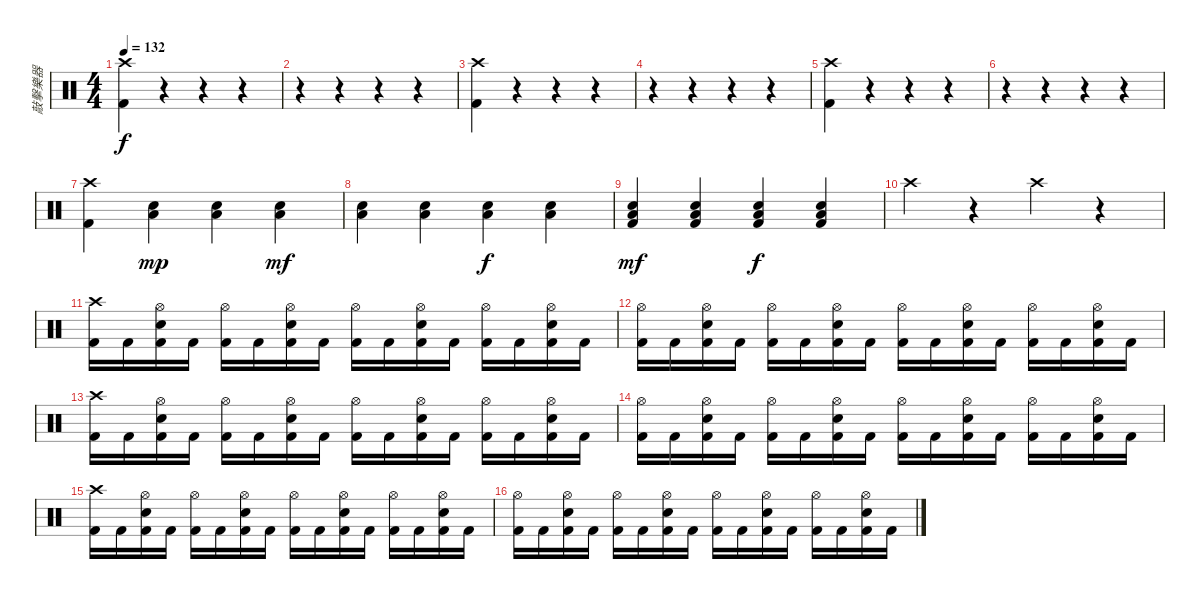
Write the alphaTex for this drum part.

\track ("敲擊樂器" "敲擊樂器") {instrument percussion}
\staff {score}
\articulation defaults
\ts (4 4)
\tempo 132
\clef neutral
\ks c
("Crash high (hit)" "Kick (hit) 2").4{dy f} r.4 r.4 r.4 |
r.4 r.4 r.4 r.4 |
("Crash high (hit)" "Kick (hit) 2").4 r.4 r.4 r.4 |
r.4 r.4 r.4 r.4 |
("Crash high (hit)" "Kick (hit) 2").4 r.4 r.4 r.4 |
r.4 r.4 r.4 r.4 |
("Crash high (hit)" "Kick (hit) 2").4 ("Low Floor Tom (hit)" "Electric Snare (hit)").4{dy mp} ("Low Floor Tom (hit)" "Electric Snare (hit)").4 ("Low Floor Tom (hit)" "Electric Snare (hit)").4{dy mf} |
("Low Floor Tom (hit)" "Electric Snare (hit)").4 ("Low Floor Tom (hit)" "Electric Snare (hit)").4 ("Low Floor Tom (hit)" "Electric Snare (hit)").4{dy f} ("Low Floor Tom (hit)" "Electric Snare (hit)").4 |
("Kick (hit) 2" "Low Floor Tom (hit)" "Electric Snare (hit)").4{dy mf} ("Kick (hit) 2" "Low Floor Tom (hit)" "Electric Snare (hit)").4 ("Kick (hit) 2" "Low Floor Tom (hit)" "Electric Snare (hit)").4{dy f} ("Kick (hit) 2" "Low Floor Tom (hit)" "Electric Snare (hit)").4 |
"Crash high (hit)".4 r.4 "Crash high (hit)".4 r.4 |
("Crash high (hit)" "Kick (hit) 2").16 "Kick (hit) 2".16 ("Hi-Hat (open)" "Electric Snare (hit)" "Kick (hit) 2").16 "Kick (hit) 2".16 ("Hi-Hat (open)" "Kick (hit) 2").16 "Kick (hit) 2".16 ("Hi-Hat (open)" "Electric Snare (hit)" "Kick (hit) 2").16 "Kick (hit) 2".16 ("Hi-Hat (open)" "Kick (hit) 2").16 "Kick (hit) 2".16 ("Hi-Hat (open)" "Electric Snare (hit)" "Kick (hit) 2").16 "Kick (hit) 2".16 ("Hi-Hat (open)" "Kick (hit) 2").16 "Kick (hit) 2".16 ("Hi-Hat (open)" "Electric Snare (hit)" "Kick (hit) 2").16 "Kick (hit) 2".16 |
("Hi-Hat (open)" "Kick (hit) 2").16 "Kick (hit) 2".16 ("Hi-Hat (open)" "Electric Snare (hit)" "Kick (hit) 2").16 "Kick (hit) 2".16 ("Hi-Hat (open)" "Kick (hit) 2").16 "Kick (hit) 2".16 ("Hi-Hat (open)" "Electric Snare (hit)" "Kick (hit) 2").16 "Kick (hit) 2".16 ("Hi-Hat (open)" "Kick (hit) 2").16 "Kick (hit) 2".16 ("Hi-Hat (open)" "Electric Snare (hit)" "Kick (hit) 2").16 "Kick (hit) 2".16 ("Hi-Hat (open)" "Kick (hit) 2").16 "Kick (hit) 2".16 ("Hi-Hat (open)" "Electric Snare (hit)" "Kick (hit) 2").16 "Kick (hit) 2".16 |
("Crash high (hit)" "Kick (hit) 2").16 "Kick (hit) 2".16 ("Hi-Hat (open)" "Electric Snare (hit)" "Kick (hit) 2").16 "Kick (hit) 2".16 ("Hi-Hat (open)" "Kick (hit) 2").16 "Kick (hit) 2".16 ("Hi-Hat (open)" "Electric Snare (hit)" "Kick (hit) 2").16 "Kick (hit) 2".16 ("Hi-Hat (open)" "Kick (hit) 2").16 "Kick (hit) 2".16 ("Hi-Hat (open)" "Electric Snare (hit)" "Kick (hit) 2").16 "Kick (hit) 2".16 ("Hi-Hat (open)" "Kick (hit) 2").16 "Kick (hit) 2".16 ("Hi-Hat (open)" "Electric Snare (hit)" "Kick (hit) 2").16 "Kick (hit) 2".16 |
("Hi-Hat (open)" "Kick (hit) 2").16 "Kick (hit) 2".16 ("Hi-Hat (open)" "Electric Snare (hit)" "Kick (hit) 2").16 "Kick (hit) 2".16 ("Hi-Hat (open)" "Kick (hit) 2").16 "Kick (hit) 2".16 ("Hi-Hat (open)" "Electric Snare (hit)" "Kick (hit) 2").16 "Kick (hit) 2".16 ("Hi-Hat (open)" "Kick (hit) 2").16 "Kick (hit) 2".16 ("Hi-Hat (open)" "Electric Snare (hit)" "Kick (hit) 2").16 "Kick (hit) 2".16 ("Hi-Hat (open)" "Kick (hit) 2").16 "Kick (hit) 2".16 ("Hi-Hat (open)" "Electric Snare (hit)" "Kick (hit) 2").16 "Kick (hit) 2".16 |
("Crash high (hit)" "Kick (hit) 2").16 "Kick (hit) 2".16 ("Hi-Hat (open)" "Electric Snare (hit)" "Kick (hit) 2").16 "Kick (hit) 2".16 ("Hi-Hat (open)" "Kick (hit) 2").16 "Kick (hit) 2".16 ("Hi-Hat (open)" "Electric Snare (hit)" "Kick (hit) 2").16 "Kick (hit) 2".16 ("Hi-Hat (open)" "Kick (hit) 2").16 "Kick (hit) 2".16 ("Hi-Hat (open)" "Electric Snare (hit)" "Kick (hit) 2").16 "Kick (hit) 2".16 ("Hi-Hat (open)" "Kick (hit) 2").16 "Kick (hit) 2".16 ("Hi-Hat (open)" "Electric Snare (hit)" "Kick (hit) 2").16 "Kick (hit) 2".16 |
("Hi-Hat (open)" "Kick (hit) 2").16 "Kick (hit) 2".16 ("Hi-Hat (open)" "Electric Snare (hit)" "Kick (hit) 2").16 "Kick (hit) 2".16 ("Hi-Hat (open)" "Kick (hit) 2").16 "Kick (hit) 2".16 ("Hi-Hat (open)" "Electric Snare (hit)" "Kick (hit) 2").16 "Kick (hit) 2".16 ("Hi-Hat (open)" "Kick (hit) 2").16 "Kick (hit) 2".16 ("Hi-Hat (open)" "Electric Snare (hit)" "Kick (hit) 2").16 "Kick (hit) 2".16 ("Hi-Hat (open)" "Kick (hit) 2").16 "Kick (hit) 2".16 ("Hi-Hat (open)" "Electric Snare (hit)" "Kick (hit) 2").16 "Kick (hit) 2".16
